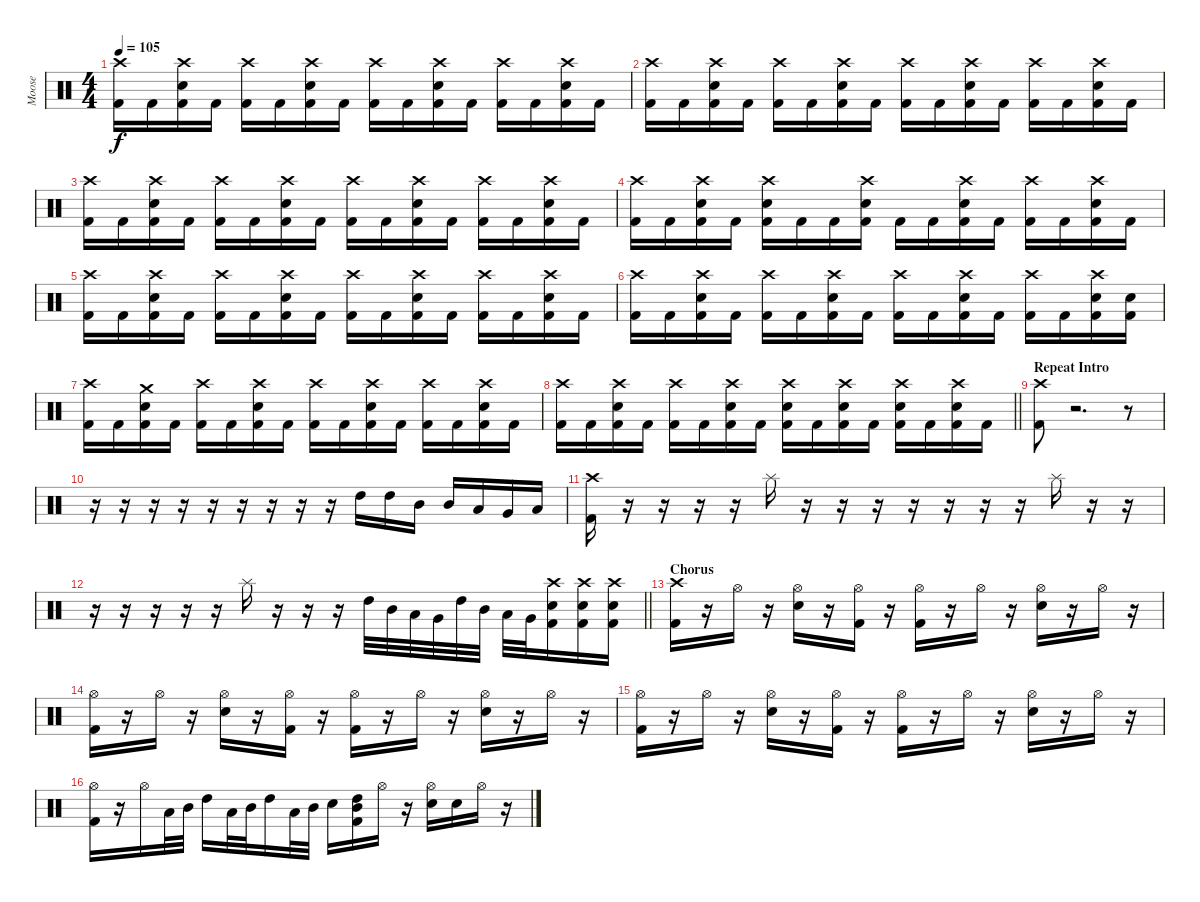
\track ("Moose" "Moose") {instrument percussion}
\staff {score}
\articulation defaults
\ts (4 4)
\tempo 105
\clef neutral
\ks c
("Crash high (hit)" "Kick (hit) 2").16{dy f} "Kick (hit) 2".16 ("Crash high (hit)" "Electric Snare (hit)" "Kick (hit) 2").16 "Kick (hit) 2".16 ("Crash high (hit)" "Kick (hit) 2").16 "Kick (hit) 2".16 ("Crash high (hit)" "Electric Snare (hit)" "Kick (hit) 2").16 "Kick (hit) 2".16 ("Crash high (hit)" "Kick (hit) 2").16 "Kick (hit) 2".16 ("Crash high (hit)" "Electric Snare (hit)" "Kick (hit) 2").16 "Kick (hit) 2".16 ("Crash high (hit)" "Kick (hit) 2").16 "Kick (hit) 2".16 ("Crash high (hit)" "Electric Snare (hit)" "Kick (hit) 2").16 "Kick (hit) 2".16 |
("Crash high (hit)" "Kick (hit) 2").16 "Kick (hit) 2".16 ("Crash high (hit)" "Electric Snare (hit)" "Kick (hit) 2").16 "Kick (hit) 2".16 ("Crash high (hit)" "Kick (hit) 2").16 "Kick (hit) 2".16 ("Crash high (hit)" "Electric Snare (hit)" "Kick (hit) 2").16 "Kick (hit) 2".16 ("Crash high (hit)" "Kick (hit) 2").16 "Kick (hit) 2".16 ("Crash high (hit)" "Electric Snare (hit)" "Kick (hit) 2").16 "Kick (hit) 2".16 ("Crash high (hit)" "Kick (hit) 2").16 "Kick (hit) 2".16 ("Crash high (hit)" "Electric Snare (hit)" "Kick (hit) 2").16 "Kick (hit) 2".16 |
("Crash high (hit)" "Kick (hit) 2").16 "Kick (hit) 2".16 ("Crash high (hit)" "Electric Snare (hit)" "Kick (hit) 2").16 "Kick (hit) 2".16 ("Crash high (hit)" "Kick (hit) 2").16 "Kick (hit) 2".16 ("Crash high (hit)" "Electric Snare (hit)" "Kick (hit) 2").16 "Kick (hit) 2".16 ("Crash high (hit)" "Kick (hit) 2").16 "Kick (hit) 2".16 ("Crash high (hit)" "Electric Snare (hit)" "Kick (hit) 2").16 "Kick (hit) 2".16 ("Crash high (hit)" "Kick (hit) 2").16 "Kick (hit) 2".16 ("Crash high (hit)" "Electric Snare (hit)" "Kick (hit) 2").16 "Kick (hit) 2".16 |
("Crash high (hit)" "Kick (hit) 2").16 "Kick (hit) 2".16 ("Crash high (hit)" "Electric Snare (hit)" "Kick (hit) 2").16 "Kick (hit) 2".16 ("Crash high (hit)" "Electric Snare (hit)" "Kick (hit) 2").16 "Kick (hit) 2".16 "Kick (hit) 2".16 ("Crash high (hit)" "Electric Snare (hit)" "Kick (hit) 2").16 "Kick (hit) 2".16 "Kick (hit) 2".16 ("Crash high (hit)" "Electric Snare (hit)" "Kick (hit) 2").16 "Kick (hit) 2".16 ("Crash high (hit)" "Kick (hit) 2").16 "Kick (hit) 2".16 ("Crash high (hit)" "Electric Snare (hit)" "Kick (hit) 2").16 "Kick (hit) 2".16 |
("Crash high (hit)" "Kick (hit) 2").16 "Kick (hit) 2".16 ("Crash high (hit)" "Electric Snare (hit)" "Kick (hit) 2").16 "Kick (hit) 2".16 ("Crash high (hit)" "Kick (hit) 2").16 "Kick (hit) 2".16 ("Crash high (hit)" "Electric Snare (hit)" "Kick (hit) 2").16 "Kick (hit) 2".16 ("Crash high (hit)" "Kick (hit) 2").16 "Kick (hit) 2".16 ("Crash high (hit)" "Electric Snare (hit)" "Kick (hit) 2").16 "Kick (hit) 2".16 ("Crash high (hit)" "Kick (hit) 2").16 "Kick (hit) 2".16 ("Crash high (hit)" "Electric Snare (hit)" "Kick (hit) 2").16 "Kick (hit) 2".16 |
("Crash high (hit)" "Kick (hit) 2").16 "Kick (hit) 2".16 ("Crash high (hit)" "Electric Snare (hit)" "Kick (hit) 2").16 "Kick (hit) 2".16 ("Crash high (hit)" "Kick (hit) 2").16 "Kick (hit) 2".16 ("Crash high (hit)" "Electric Snare (hit)" "Kick (hit) 2").16 "Kick (hit) 2".16 ("Crash high (hit)" "Kick (hit) 2").16 "Kick (hit) 2".16 ("Crash high (hit)" "Electric Snare (hit)" "Kick (hit) 2").16 "Kick (hit) 2".16 ("Crash high (hit)" "Kick (hit) 2").16 "Kick (hit) 2".16 ("Crash high (hit)" "Electric Snare (hit)" "Kick (hit) 2").16 ("Electric Snare (hit)" "Kick (hit) 2").16 |
("Crash high (hit)" "Kick (hit) 2").16 "Kick (hit) 2".16 ("Crash medium (hit)" "Electric Snare (hit)" "Kick (hit) 2").16 "Kick (hit) 2".16 ("Crash high (hit)" "Kick (hit) 2").16 "Kick (hit) 2".16 ("Crash high (hit)" "Electric Snare (hit)" "Kick (hit) 2").16 "Kick (hit) 2".16 ("Crash high (hit)" "Kick (hit) 2").16 "Kick (hit) 2".16 ("Crash high (hit)" "Electric Snare (hit)" "Kick (hit) 2").16 "Kick (hit) 2".16 ("Crash high (hit)" "Kick (hit) 2").16 "Kick (hit) 2".16 ("Crash high (hit)" "Electric Snare (hit)" "Kick (hit) 2").16 "Kick (hit) 2".16 |
\barLineRight lightlight
("Crash high (hit)" "Kick (hit) 2").16 "Kick (hit) 2".16 ("Crash high (hit)" "Electric Snare (hit)" "Kick (hit) 2").16 "Kick (hit) 2".16 ("Crash high (hit)" "Kick (hit) 2").16 "Kick (hit) 2".16 ("Crash high (hit)" "Electric Snare (hit)" "Kick (hit) 2").16 "Kick (hit) 2".16 ("Crash high (hit)" "Electric Snare (hit)" "Kick (hit) 2").16 "Kick (hit) 2".16 ("Crash high (hit)" "Electric Snare (hit)" "Kick (hit) 2").16 "Kick (hit) 2".16 ("Crash high (hit)" "Electric Snare (hit)" "Kick (hit) 2").16 "Kick (hit) 2".16 ("Crash high (hit)" "Electric Snare (hit)" "Kick (hit) 2").16 "Kick (hit) 2".16 |
\section ("" "Repeat Intro")
("Crash high (hit)" "Kick (hit) 2").8 r.2{d} r.8 |
r.16 r.16 r.16 r.16 r.16 r.16 r.16 r.16 r.16 "High Tom (hit)".16 "High Tom (hit)".16 "Mid Tom (hit)".16 "Mid Tom (hit)".16 "Low Tom (hit)".16 "Very Low Tom (hit)".16 "Low Floor Tom (hit)".16 |
("Crash high (hit)" "Kick (hit) 2").16 r.16 r.16 r.16 r.16 "Splash (hit)".16 r.16 r.16 r.16 r.16 r.16 r.16 r.16 "Splash (hit)".16 r.16 r.16 |
\barLineRight lightlight
r.16 r.16 r.16 r.16 r.16 "Splash (hit)".16 r.16 r.16 r.16 "High Tom (hit)".32 "Mid Tom (hit)".32 "Low Tom (hit)".32 "Very Low Tom (hit)".32 "High Tom (hit)".32 "Mid Tom (hit)".32 "Low Tom (hit)".32 "Very Low Tom (hit)".32 ("Crash high (hit)" "Electric Snare (hit)" "Kick (hit) 2").16 ("Crash high (hit)" "Electric Snare (hit)" "Kick (hit) 2").16 ("Crash high (hit)" "Electric Snare (hit)" "Kick (hit) 2").16 |
\section ("" "Chorus")
("Crash high (hit)" "Kick (hit) 2").16 r.16 "Hi-Hat (open)".16 r.16 ("Hi-Hat (open)" "Electric Snare (hit)").16 r.16 ("Hi-Hat (open)" "Kick (hit) 2").16 r.16 ("Hi-Hat (open)" "Kick (hit) 2").16 r.16 "Hi-Hat (open)".16 r.16 ("Hi-Hat (open)" "Electric Snare (hit)").16 r.16 "Hi-Hat (open)".16 r.16 |
("Hi-Hat (open)" "Kick (hit) 2").16 r.16 "Hi-Hat (open)".16 r.16 ("Hi-Hat (open)" "Electric Snare (hit)").16 r.16 ("Hi-Hat (open)" "Kick (hit) 2").16 r.16 ("Hi-Hat (open)" "Kick (hit) 2").16 r.16 "Hi-Hat (open)".16 r.16 ("Hi-Hat (open)" "Electric Snare (hit)").16 r.16 "Hi-Hat (open)".16 r.16 |
("Hi-Hat (open)" "Kick (hit) 2").16 r.16 "Hi-Hat (open)".16 r.16 ("Hi-Hat (open)" "Electric Snare (hit)").16 r.16 ("Hi-Hat (open)" "Kick (hit) 2").16 r.16 ("Hi-Hat (open)" "Kick (hit) 2").16 r.16 "Hi-Hat (open)".16 r.16 ("Hi-Hat (open)" "Electric Snare (hit)").16 r.16 "Hi-Hat (open)".16 r.16 |
("Hi-Hat (open)" "Kick (hit) 2").16 r.16 "Hi-Hat (open)".16 "Low Tom (hit)".32 "Mid Tom (hit)".32 "High Tom (hit)".16 "Low Tom (hit)".32 "Mid Tom (hit)".32 "High Tom (hit)".16 "Low Tom (hit)".32 "Mid Tom (hit)".32 "Electric Snare (hit)".16 ("Mid Tom (hit)" "High Tom (hit)" "Kick (hit) 2").16 "Hi-Hat (open)".16 r.16 ("Hi-Hat (open)" "Electric Snare (hit)").16 "Electric Snare (hit)".16 "Hi-Hat (open)".16 r.16
